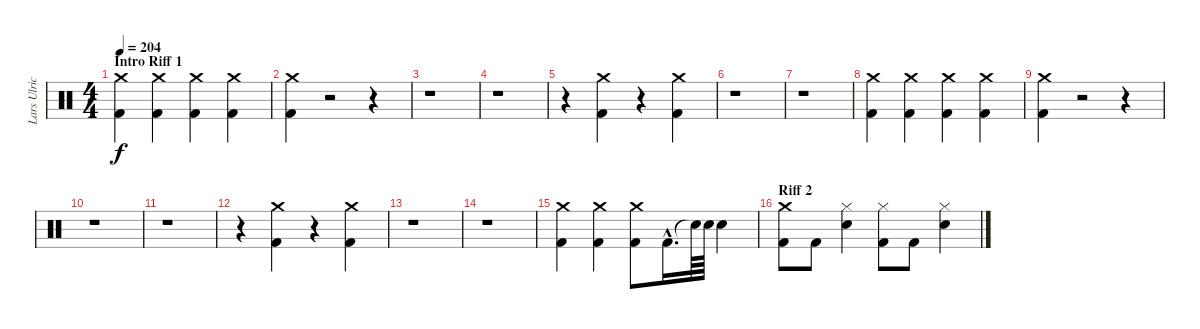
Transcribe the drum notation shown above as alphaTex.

\track ("Lars Ulrich (Drums)" "Lars Ulric") {instrument percussion}
\staff {score}
\articulation defaults
\ts (4 4)
\section ("" "Intro Riff 1")
\tempo 204
\clef neutral
\ks c
("Kick (hit) 2" "Crash medium (hit)").4{dy f} ("Kick (hit) 2" "Crash medium (hit)").4 ("Kick (hit) 2" "Crash medium (hit)").4 ("Kick (hit) 2" "Crash medium (hit)").4 |
("Kick (hit) 2" "Crash medium (hit)").4 r.2 r.4 |
r.1 |
r.1 |
r.4 ("Kick (hit) 2" "Crash medium (hit)").4 r.4 ("Kick (hit) 2" "Crash medium (hit)").4 |
r.1 |
r.1 |
("Kick (hit) 2" "Crash medium (hit)").4 ("Kick (hit) 2" "Crash medium (hit)").4 ("Kick (hit) 2" "Crash medium (hit)").4 ("Kick (hit) 2" "Crash medium (hit)").4 |
("Kick (hit) 2" "Crash medium (hit)").4 r.2 r.4 |
r.1 |
r.1 |
r.4 ("Kick (hit) 2" "Crash medium (hit)").4 r.4 ("Kick (hit) 2" "Crash medium (hit)").4 |
r.1 |
r.1 |
("Kick (hit) 2" "Crash medium (hit)").4 ("Kick (hit) 2" "Crash medium (hit)").4 ("Kick (hit) 2" "Crash medium (hit)").8 "Kick (hit) 2"{hac}.16{d} "Snare (hit)"{t}.64 "Snare (hit) 2".64 "Snare (hit) 2".4 |
\section ("" "Riff 2")
("Crash medium (hit)" "Kick (hit) 2").8 "Kick (hit) 2".8 ("Hi-Hat (closed)" "Snare (hit) 2").4 ("Hi-Hat (closed)" "Kick (hit) 2").8 "Kick (hit) 2".8 ("Snare (hit) 2" "Hi-Hat (closed)").4
